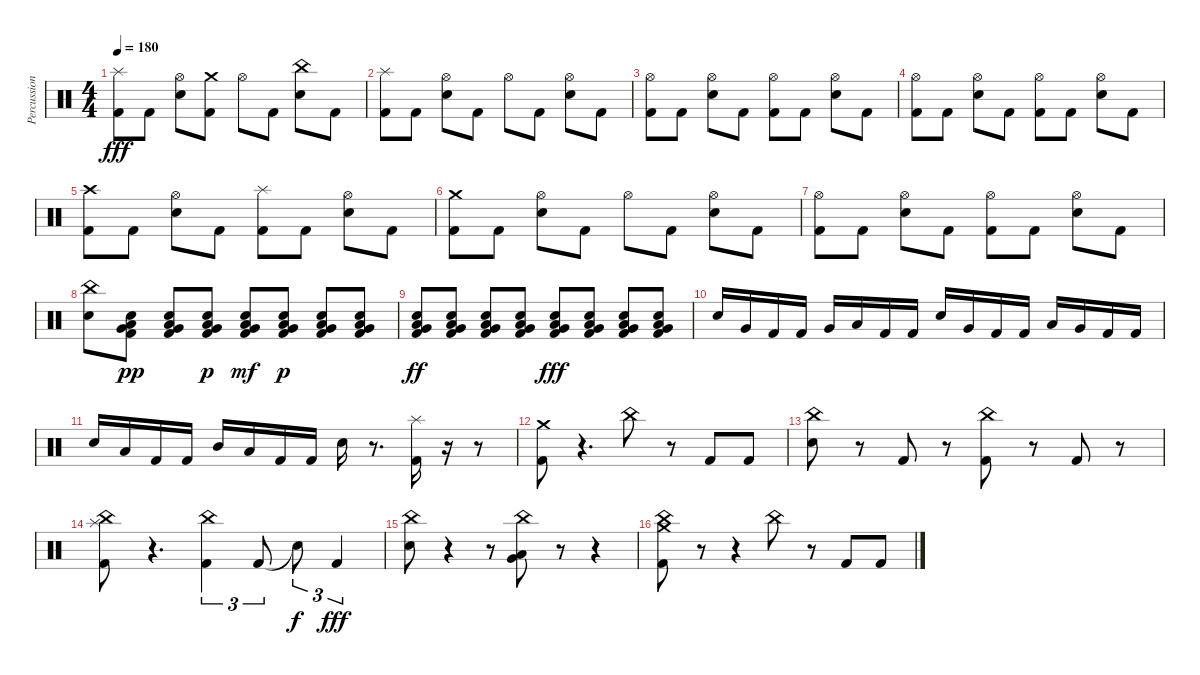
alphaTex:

\track ("Percussion" "Percussion") {instrument percussion}
\staff {score}
\articulation defaults
\ts (4 4)
\tempo 180
\clef neutral
\ks c
("Kick (hit) 2" "Splash (hit)").8{dy fff} "Kick (hit) 2".8 ("Hi-Hat (open)" "Snare (hit) 2").8 ("Kick (hit) 2" "Crash medium (hit)").8 "Hi-Hat (open)".8 "Kick (hit) 2".8 ("Snare (hit) 2" "China (hit)").8 "Kick (hit) 2".8 |
("Kick (hit) 2" "Splash (hit)").8 "Kick (hit) 2".8 ("Hi-Hat (open)" "Snare (hit) 2").8 "Kick (hit) 2".8 "Hi-Hat (open)".8 "Kick (hit) 2".8 ("Hi-Hat (open)" "Snare (hit) 2").8 "Kick (hit) 2".8 |
("Hi-Hat (open)" "Kick (hit) 2").8 "Kick (hit) 2".8 ("Hi-Hat (open)" "Snare (hit) 2").8 "Kick (hit) 2".8 ("Hi-Hat (open)" "Kick (hit) 2").8 "Kick (hit) 2".8 ("Hi-Hat (open)" "Snare (hit) 2").8 "Kick (hit) 2".8 |
("Hi-Hat (open)" "Kick (hit) 2").8 "Kick (hit) 2".8 ("Hi-Hat (open)" "Snare (hit) 2").8 "Kick (hit) 2".8 ("Hi-Hat (open)" "Kick (hit) 2").8 "Kick (hit) 2".8 ("Hi-Hat (open)" "Snare (hit) 2").8 "Kick (hit) 2".8 |
("Kick (hit) 2" "Crash high (hit)").8 "Kick (hit) 2".8 ("Hi-Hat (open)" "Snare (hit) 2").8 "Kick (hit) 2".8 ("Kick (hit) 2" "Splash (hit)").8 "Kick (hit) 2".8 ("Hi-Hat (open)" "Snare (hit) 2").8 "Kick (hit) 2".8 |
("Kick (hit) 2" "Crash medium (hit)").8 "Kick (hit) 2".8 ("Hi-Hat (open)" "Snare (hit) 2").8 "Kick (hit) 2".8 "Hi-Hat (open)".8 "Kick (hit) 2".8 ("Hi-Hat (open)" "Snare (hit) 2").8 "Kick (hit) 2".8 |
("Hi-Hat (open)" "Kick (hit) 2").8 "Kick (hit) 2".8 ("Hi-Hat (open)" "Snare (hit) 2").8 "Kick (hit) 2".8 ("Hi-Hat (open)" "Kick (hit) 2").8 "Kick (hit) 2".8 ("Hi-Hat (open)" "Snare (hit) 2").8 "Kick (hit) 2".8 |
("Snare (hit) 2" "China (hit)").8 ("Kick (hit) 2" "Snare (hit) 2" "Low Floor Tom (hit)" "Very Low Tom (hit)").8{dy pp} ("Kick (hit) 2" "Snare (hit) 2" "Low Floor Tom (hit)" "Very Low Tom (hit)").8 ("Kick (hit) 2" "Snare (hit) 2" "Low Floor Tom (hit)" "Very Low Tom (hit)").8{dy p} ("Kick (hit) 2" "Snare (hit) 2" "Low Floor Tom (hit)" "Very Low Tom (hit)").8{dy mf} ("Kick (hit) 2" "Snare (hit) 2" "Low Floor Tom (hit)" "Very Low Tom (hit)").8{dy p} ("Kick (hit) 2" "Snare (hit) 2" "Low Floor Tom (hit)" "Very Low Tom (hit)").8 ("Kick (hit) 2" "Snare (hit) 2" "Low Floor Tom (hit)" "Very Low Tom (hit)").8 |
("Kick (hit) 2" "Snare (hit) 2" "Low Floor Tom (hit)" "Very Low Tom (hit)").8{dy ff} ("Kick (hit) 2" "Snare (hit) 2" "Low Floor Tom (hit)" "Very Low Tom (hit)").8 ("Kick (hit) 2" "Snare (hit) 2" "Low Floor Tom (hit)" "Very Low Tom (hit)").8 ("Kick (hit) 2" "Snare (hit) 2" "Low Floor Tom (hit)" "Very Low Tom (hit)").8 ("Kick (hit) 2" "Snare (hit) 2" "Low Floor Tom (hit)" "Very Low Tom (hit)").8{dy fff} ("Kick (hit) 2" "Snare (hit) 2" "Low Floor Tom (hit)" "Very Low Tom (hit)").8 ("Kick (hit) 2" "Snare (hit) 2" "Low Floor Tom (hit)" "Very Low Tom (hit)").8 ("Kick (hit) 2" "Snare (hit) 2" "Low Floor Tom (hit)" "Very Low Tom (hit)").8 |
"Snare (hit) 2".16 "Very Low Tom (hit)".16 "Kick (hit) 2".16 "Kick (hit) 2".16 "Very Low Tom (hit)".16 "Low Floor Tom (hit)".16 "Kick (hit) 2".16 "Kick (hit) 2".16 "Snare (hit) 2".16 "Very Low Tom (hit)".16 "Kick (hit) 2".16 "Kick (hit) 2".16 "Low Tom (hit)".16 "Very Low Tom (hit)".16 "Kick (hit) 2".16 "Kick (hit) 2".16 |
"Snare (hit) 2".16 "Low Tom (hit)".16 "Kick (hit) 2".16 "Kick (hit) 2".16 "Mid Tom (hit)".16 "Low Tom (hit)".16 "Kick (hit) 2".16 "Kick (hit) 2".16 "Snare (hit) 2".16 r.8{d} ("Kick (hit) 2" "Splash (hit)").16 r.16 r.8 |
("Crash medium (hit)" "Kick (hit) 2").8 r.4{d} "China (hit)".8 r.8 "Kick (hit) 2".8 "Kick (hit) 2".8 |
("Snare (hit) 2" "China (hit)").8 r.8 "Kick (hit) 2".8 r.8 ("Kick (hit) 2" "China (hit)").8 r.8 "Kick (hit) 2".8 r.8 |
("Kick (hit) 2" "China (hit)" "Splash (hit)").8 r.4{d} ("China (hit)" "Kick (hit) 2").4{tu (3 2)} "Kick (hit) 2".8{tu (3 2)} "Snare (hit)"{t}.8{tu (3 2) dy f} "Kick (hit) 2".4{tu (3 2) dy fff} |
("Snare (hit) 2" "China (hit)").8 r.4 r.8 ("Low Floor Tom (hit)" "Very Low Tom (hit)" "China (hit)").8 r.8 r.4 |
("China (hit)" "Crash medium (hit)" "Kick (hit) 2").8 r.8 r.4 "China (hit)".8 r.8 "Kick (hit) 2".8 "Kick (hit) 2".8
